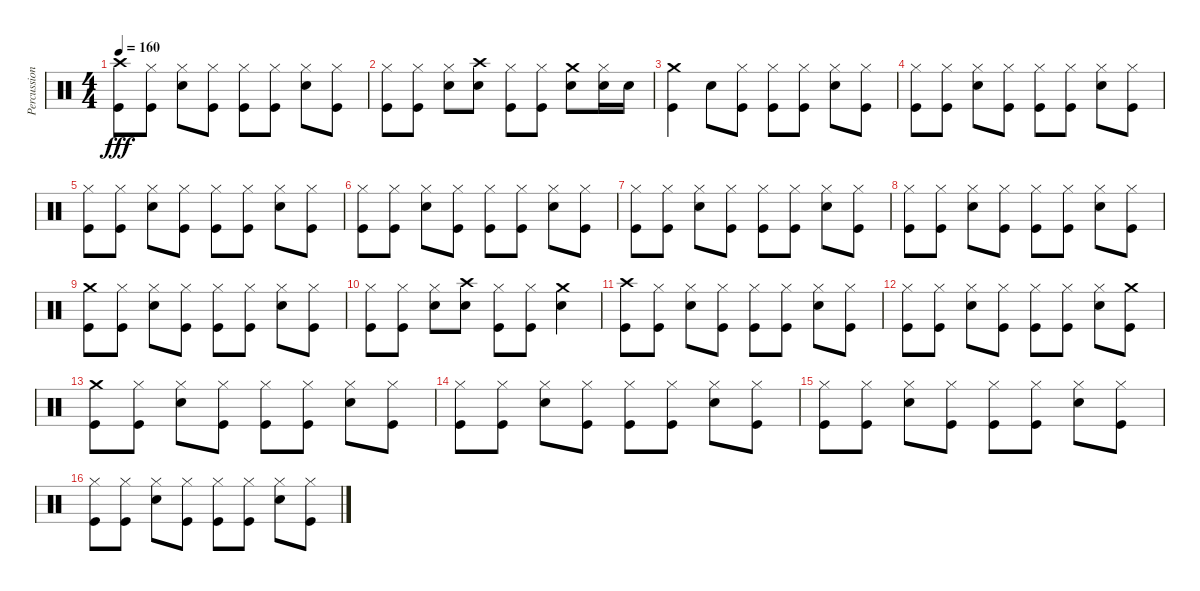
\track ("Percussions" "Percussion") {instrument percussion}
\staff {score}
\articulation defaults
\ts (4 4)
\tempo 160
\clef neutral
\ks c
("Crash high (hit)" "Kick (hit)").8{dy fff} ("Hi-Hat (closed)" "Kick (hit)").8 ("Hi-Hat (closed)" "Electric Snare (hit)").8 ("Hi-Hat (closed)" "Kick (hit)").8 ("Hi-Hat (closed)" "Kick (hit)").8 ("Hi-Hat (closed)" "Kick (hit)").8 ("Hi-Hat (closed)" "Electric Snare (hit)").8 ("Hi-Hat (closed)" "Kick (hit)").8 |
("Hi-Hat (closed)" "Kick (hit)").8 ("Hi-Hat (closed)" "Kick (hit)").8 ("Hi-Hat (closed)" "Electric Snare (hit)").8 ("Crash high (hit)" "Electric Snare (hit)").8 ("Hi-Hat (closed)" "Kick (hit)").8 ("Hi-Hat (closed)" "Kick (hit)").8 ("Crash medium (hit)" "Electric Snare (hit)").8 ("Hi-Hat (closed)" "Electric Snare (hit)").16 "Electric Snare (hit)".16 |
("Crash medium (hit)" "Kick (hit)").4 "Electric Snare (hit)".8 ("Hi-Hat (closed)" "Kick (hit)").8 ("Hi-Hat (closed)" "Kick (hit)").8 ("Hi-Hat (closed)" "Kick (hit)").8 ("Hi-Hat (closed)" "Electric Snare (hit)").8 ("Hi-Hat (closed)" "Kick (hit)").8 |
("Hi-Hat (closed)" "Kick (hit)").8 ("Hi-Hat (closed)" "Kick (hit)").8 ("Hi-Hat (closed)" "Electric Snare (hit)").8 ("Hi-Hat (closed)" "Kick (hit)").8 ("Hi-Hat (closed)" "Kick (hit)").8 ("Hi-Hat (closed)" "Kick (hit)").8 ("Hi-Hat (closed)" "Electric Snare (hit)").8 ("Hi-Hat (closed)" "Kick (hit)").8 |
("Hi-Hat (closed)" "Kick (hit)").8 ("Hi-Hat (closed)" "Kick (hit)").8 ("Hi-Hat (closed)" "Electric Snare (hit)").8 ("Hi-Hat (closed)" "Kick (hit)").8 ("Hi-Hat (closed)" "Kick (hit)").8 ("Hi-Hat (closed)" "Kick (hit)").8 ("Hi-Hat (closed)" "Electric Snare (hit)").8 ("Hi-Hat (closed)" "Kick (hit)").8 |
("Hi-Hat (closed)" "Kick (hit)").8 ("Hi-Hat (closed)" "Kick (hit)").8 ("Hi-Hat (closed)" "Electric Snare (hit)").8 ("Hi-Hat (closed)" "Kick (hit)").8 ("Hi-Hat (closed)" "Kick (hit)").8 ("Hi-Hat (closed)" "Kick (hit)").8 ("Hi-Hat (closed)" "Electric Snare (hit)").8 ("Hi-Hat (closed)" "Kick (hit)").8 |
("Hi-Hat (closed)" "Kick (hit)").8 ("Hi-Hat (closed)" "Kick (hit)").8 ("Hi-Hat (closed)" "Electric Snare (hit)").8 ("Hi-Hat (closed)" "Kick (hit)").8 ("Hi-Hat (closed)" "Kick (hit)").8 ("Hi-Hat (closed)" "Kick (hit)").8 ("Hi-Hat (closed)" "Electric Snare (hit)").8 ("Hi-Hat (closed)" "Kick (hit)").8 |
("Hi-Hat (closed)" "Kick (hit)").8 ("Hi-Hat (closed)" "Kick (hit)").8 ("Hi-Hat (closed)" "Electric Snare (hit)").8 ("Hi-Hat (closed)" "Kick (hit)").8 ("Hi-Hat (closed)" "Kick (hit)").8 ("Hi-Hat (closed)" "Kick (hit)").8 ("Hi-Hat (closed)" "Electric Snare (hit)").8 ("Hi-Hat (closed)" "Kick (hit)").8 |
("Crash medium (hit)" "Kick (hit)").8 ("Hi-Hat (closed)" "Kick (hit)").8 ("Hi-Hat (closed)" "Electric Snare (hit)").8 ("Hi-Hat (closed)" "Kick (hit)").8 ("Hi-Hat (closed)" "Kick (hit)").8 ("Hi-Hat (closed)" "Kick (hit)").8 ("Hi-Hat (closed)" "Electric Snare (hit)").8 ("Hi-Hat (closed)" "Kick (hit)").8 |
("Hi-Hat (closed)" "Kick (hit)").8 ("Hi-Hat (closed)" "Kick (hit)").8 ("Hi-Hat (closed)" "Electric Snare (hit)").8 ("Crash high (hit)" "Electric Snare (hit)").8 ("Hi-Hat (closed)" "Kick (hit)").8 ("Hi-Hat (closed)" "Kick (hit)").8 ("Crash medium (hit)" "Electric Snare (hit)").4 |
("Crash high (hit)" "Kick (hit)").8 ("Hi-Hat (closed)" "Kick (hit)").8 ("Hi-Hat (closed)" "Electric Snare (hit)").8 ("Hi-Hat (closed)" "Kick (hit)").8 ("Hi-Hat (closed)" "Kick (hit)").8 ("Hi-Hat (closed)" "Kick (hit)").8 ("Hi-Hat (closed)" "Electric Snare (hit)").8 ("Hi-Hat (closed)" "Kick (hit)").8 |
("Hi-Hat (closed)" "Kick (hit)").8 ("Hi-Hat (closed)" "Kick (hit)").8 ("Hi-Hat (closed)" "Electric Snare (hit)").8 ("Hi-Hat (closed)" "Kick (hit)").8 ("Hi-Hat (closed)" "Kick (hit)").8 ("Hi-Hat (closed)" "Kick (hit)").8 ("Hi-Hat (closed)" "Electric Snare (hit)").8 ("Crash medium (hit)" "Kick (hit)").8 |
("Crash medium (hit)" "Kick (hit)").8 ("Hi-Hat (closed)" "Kick (hit)").8 ("Hi-Hat (closed)" "Electric Snare (hit)").8 ("Hi-Hat (closed)" "Kick (hit)").8 ("Hi-Hat (closed)" "Kick (hit)").8 ("Hi-Hat (closed)" "Kick (hit)").8 ("Hi-Hat (closed)" "Electric Snare (hit)").8 ("Hi-Hat (closed)" "Kick (hit)").8 |
("Hi-Hat (closed)" "Kick (hit)").8 ("Hi-Hat (closed)" "Kick (hit)").8 ("Hi-Hat (closed)" "Electric Snare (hit)").8 ("Hi-Hat (closed)" "Kick (hit)").8 ("Hi-Hat (closed)" "Kick (hit)").8 ("Hi-Hat (closed)" "Kick (hit)").8 ("Hi-Hat (closed)" "Electric Snare (hit)").8 ("Hi-Hat (closed)" "Kick (hit)").8 |
("Hi-Hat (closed)" "Kick (hit)").8 ("Hi-Hat (closed)" "Kick (hit)").8 ("Hi-Hat (closed)" "Electric Snare (hit)").8 ("Hi-Hat (closed)" "Kick (hit)").8 ("Hi-Hat (closed)" "Kick (hit)").8 ("Hi-Hat (closed)" "Kick (hit)").8 ("Hi-Hat (closed)" "Electric Snare (hit)").8 ("Hi-Hat (closed)" "Kick (hit)").8 |
("Hi-Hat (closed)" "Kick (hit)").8 ("Hi-Hat (closed)" "Kick (hit)").8 ("Hi-Hat (closed)" "Electric Snare (hit)").8 ("Hi-Hat (closed)" "Kick (hit)").8 ("Hi-Hat (closed)" "Kick (hit)").8 ("Hi-Hat (closed)" "Kick (hit)").8 ("Hi-Hat (closed)" "Electric Snare (hit)").8 ("Hi-Hat (closed)" "Kick (hit)").8
